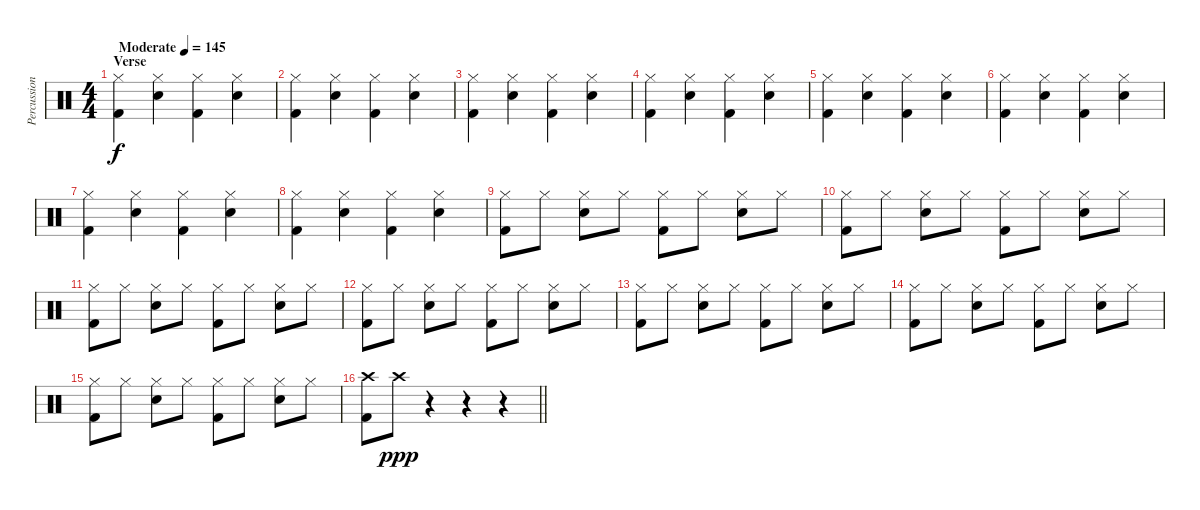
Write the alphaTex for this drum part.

\track ("Percussion" "Percussion") {instrument percussion}
\staff {score}
\articulation defaults
\ts (4 4)
\section ("" "Verse")
\tempo (145 "Moderate")
\clef neutral
\ks c
("Hi-Hat (closed)" "Kick (hit) 2").4{dy f} ("Hi-Hat (closed)" "Electric Snare (hit)").4 ("Hi-Hat (closed)" "Kick (hit) 2").4 ("Hi-Hat (closed)" "Electric Snare (hit)").4 |
("Hi-Hat (closed)" "Kick (hit) 2").4 ("Hi-Hat (closed)" "Electric Snare (hit)").4 ("Hi-Hat (closed)" "Kick (hit) 2").4 ("Hi-Hat (closed)" "Electric Snare (hit)").4 |
("Hi-Hat (closed)" "Kick (hit) 2").4 ("Hi-Hat (closed)" "Electric Snare (hit)").4 ("Hi-Hat (closed)" "Kick (hit) 2").4 ("Hi-Hat (closed)" "Electric Snare (hit)").4 |
("Hi-Hat (closed)" "Kick (hit) 2").4 ("Hi-Hat (closed)" "Electric Snare (hit)").4 ("Hi-Hat (closed)" "Kick (hit) 2").4 ("Hi-Hat (closed)" "Electric Snare (hit)").4 |
("Hi-Hat (closed)" "Kick (hit) 2").4 ("Hi-Hat (closed)" "Electric Snare (hit)").4 ("Hi-Hat (closed)" "Kick (hit) 2").4 ("Hi-Hat (closed)" "Electric Snare (hit)").4 |
("Hi-Hat (closed)" "Kick (hit) 2").4 ("Hi-Hat (closed)" "Electric Snare (hit)").4 ("Hi-Hat (closed)" "Kick (hit) 2").4 ("Hi-Hat (closed)" "Electric Snare (hit)").4 |
("Hi-Hat (closed)" "Kick (hit) 2").4 ("Hi-Hat (closed)" "Electric Snare (hit)").4 ("Hi-Hat (closed)" "Kick (hit) 2").4 ("Hi-Hat (closed)" "Electric Snare (hit)").4 |
("Hi-Hat (closed)" "Kick (hit) 2").4 ("Hi-Hat (closed)" "Electric Snare (hit)").4 ("Hi-Hat (closed)" "Kick (hit) 2").4 ("Hi-Hat (closed)" "Electric Snare (hit)").4 |
("Hi-Hat (closed)" "Kick (hit) 2").8 "Hi-Hat (closed)".8 ("Hi-Hat (closed)" "Electric Snare (hit)").8 "Hi-Hat (closed)".8 ("Hi-Hat (closed)" "Kick (hit) 2").8 "Hi-Hat (closed)".8 ("Hi-Hat (closed)" "Electric Snare (hit)").8 "Hi-Hat (closed)".8 |
("Hi-Hat (closed)" "Kick (hit) 2").8 "Hi-Hat (closed)".8 ("Hi-Hat (closed)" "Electric Snare (hit)").8 "Hi-Hat (closed)".8 ("Hi-Hat (closed)" "Kick (hit) 2").8 "Hi-Hat (closed)".8 ("Hi-Hat (closed)" "Electric Snare (hit)").8 "Hi-Hat (closed)".8 |
("Hi-Hat (closed)" "Kick (hit) 2").8 "Hi-Hat (closed)".8 ("Hi-Hat (closed)" "Electric Snare (hit)").8 "Hi-Hat (closed)".8 ("Hi-Hat (closed)" "Kick (hit) 2").8 "Hi-Hat (closed)".8 ("Hi-Hat (closed)" "Electric Snare (hit)").8 "Hi-Hat (closed)".8 |
("Hi-Hat (closed)" "Kick (hit) 2").8 "Hi-Hat (closed)".8 ("Hi-Hat (closed)" "Electric Snare (hit)").8 "Hi-Hat (closed)".8 ("Hi-Hat (closed)" "Kick (hit) 2").8 "Hi-Hat (closed)".8 ("Hi-Hat (closed)" "Electric Snare (hit)").8 "Hi-Hat (closed)".8 |
("Hi-Hat (closed)" "Kick (hit) 2").8 "Hi-Hat (closed)".8 ("Hi-Hat (closed)" "Electric Snare (hit)").8 "Hi-Hat (closed)".8 ("Hi-Hat (closed)" "Kick (hit) 2").8 "Hi-Hat (closed)".8 ("Hi-Hat (closed)" "Electric Snare (hit)").8 "Hi-Hat (closed)".8 |
("Hi-Hat (closed)" "Kick (hit) 2").8 "Hi-Hat (closed)".8 ("Hi-Hat (closed)" "Electric Snare (hit)").8 "Hi-Hat (closed)".8 ("Hi-Hat (closed)" "Kick (hit) 2").8 "Hi-Hat (closed)".8 ("Hi-Hat (closed)" "Electric Snare (hit)").8 "Hi-Hat (closed)".8 |
("Hi-Hat (closed)" "Kick (hit) 2").8 "Hi-Hat (closed)".8 ("Hi-Hat (closed)" "Electric Snare (hit)").8 "Hi-Hat (closed)".8 ("Hi-Hat (closed)" "Kick (hit) 2").8 "Hi-Hat (closed)".8 ("Hi-Hat (closed)" "Electric Snare (hit)").8 "Hi-Hat (closed)".8 |
\barLineRight lightlight
("Crash high (hit)" "Kick (hit) 2").8 "Crash high (hit)".8{dy ppp} r.4 r.4 r.4
